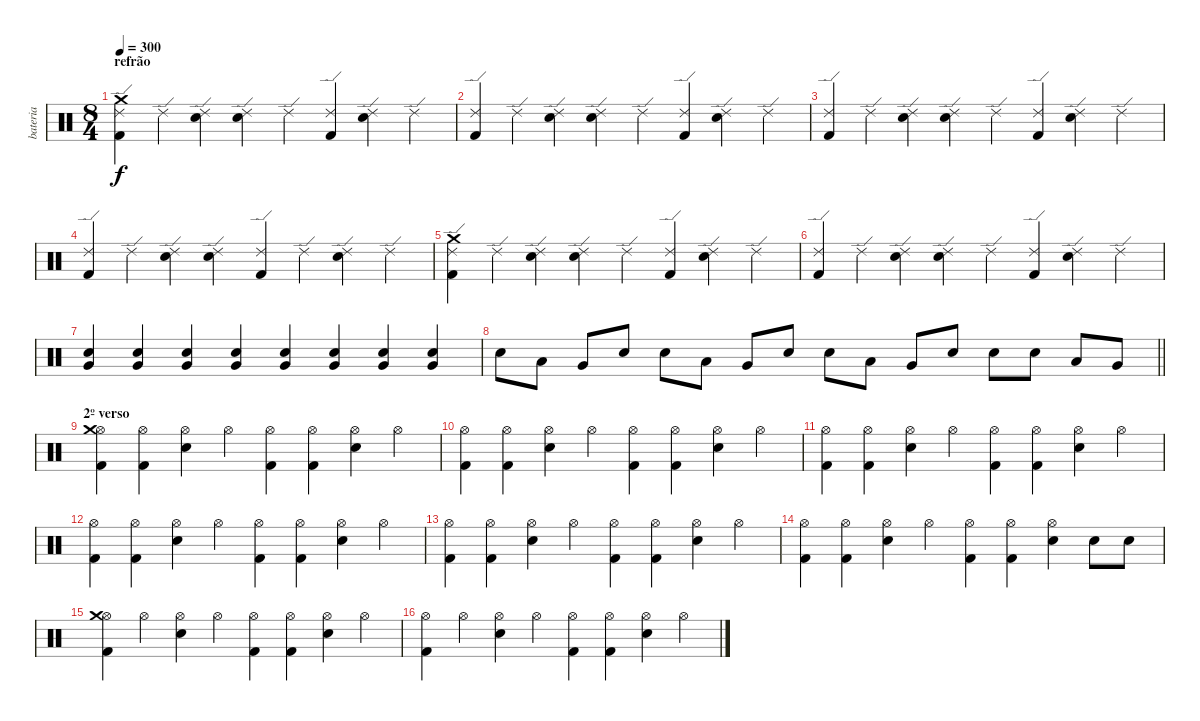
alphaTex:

\track ("bateria" "bateria") {instrument percussion}
\staff {score}
\articulation defaults
\ts (8 4)
\section ("" "refrão")
\tempo 300
\clef neutral
\ks c
("Ride (edge) 2" "Kick (hit) 2" "Crash medium (hit)").4{dy f} "Ride (edge) 2".4 ("Ride (edge) 2" "Electric Snare (hit)").4 ("Ride (edge) 2" "Electric Snare (hit)").4 "Ride (edge) 2".4 ("Ride (edge) 2" "Kick (hit) 2").4 ("Ride (edge) 2" "Electric Snare (hit)").4 "Ride (edge) 2".4 |
("Ride (edge) 2" "Kick (hit) 2").4 "Ride (edge) 2".4 ("Ride (edge) 2" "Electric Snare (hit)").4 ("Ride (edge) 2" "Electric Snare (hit)").4 "Ride (edge) 2".4 ("Ride (edge) 2" "Kick (hit) 2").4 ("Ride (edge) 2" "Electric Snare (hit)").4 "Ride (edge) 2".4 |
("Ride (edge) 2" "Kick (hit) 2").4 "Ride (edge) 2".4 ("Ride (edge) 2" "Electric Snare (hit)").4 ("Ride (edge) 2" "Electric Snare (hit)").4 "Ride (edge) 2".4 ("Ride (edge) 2" "Kick (hit) 2").4 ("Ride (edge) 2" "Electric Snare (hit)").4 "Ride (edge) 2".4 |
("Ride (edge) 2" "Kick (hit) 2").4 "Ride (edge) 2".4 ("Ride (edge) 2" "Electric Snare (hit)").4 ("Ride (edge) 2" "Electric Snare (hit)").4 ("Ride (edge) 2" "Kick (hit) 2").4 "Ride (edge) 2".4 ("Ride (edge) 2" "Electric Snare (hit)").4 "Ride (edge) 2".4 |
("Ride (edge) 2" "Kick (hit) 2" "Crash medium (hit)").4 "Ride (edge) 2".4 ("Ride (edge) 2" "Electric Snare (hit)").4 ("Ride (edge) 2" "Electric Snare (hit)").4 "Ride (edge) 2".4 ("Ride (edge) 2" "Kick (hit) 2").4 ("Ride (edge) 2" "Electric Snare (hit)").4 "Ride (edge) 2".4 |
("Ride (edge) 2" "Kick (hit) 2").4 "Ride (edge) 2".4 ("Ride (edge) 2" "Electric Snare (hit)").4 ("Ride (edge) 2" "Electric Snare (hit)").4 "Ride (edge) 2".4 ("Ride (edge) 2" "Kick (hit) 2").4 ("Ride (edge) 2" "Electric Snare (hit)").4 "Ride (edge) 2".4 |
("Electric Snare (hit)" "Very Low Tom (hit)").4 ("Electric Snare (hit)" "Very Low Tom (hit)").4 ("Electric Snare (hit)" "Very Low Tom (hit)").4 ("Electric Snare (hit)" "Very Low Tom (hit)").4 ("Electric Snare (hit)" "Very Low Tom (hit)").4 ("Electric Snare (hit)" "Very Low Tom (hit)").4 ("Electric Snare (hit)" "Very Low Tom (hit)").4 ("Electric Snare (hit)" "Very Low Tom (hit)").4 |
\barLineRight lightlight "Electric Snare (hit)".8 "Low Tom (hit)".8 "Very Low Tom (hit)".8 "Electric Snare (hit)".8 "Electric Snare (hit)".8 "Low Tom (hit)".8 "Very Low Tom (hit)".8 "Electric Snare (hit)".8 "Electric Snare (hit)".8 "Low Tom (hit)".8 "Very Low Tom (hit)".8 "Electric Snare (hit)".8 "Electric Snare (hit)".8 "Electric Snare (hit)".8 "Low Tom (hit)".8 "Very Low Tom (hit)".8
|
\section ("" "2º verso")
("Hi-Hat (open)" "Kick (hit) 2" "Crash medium (hit)").4 ("Hi-Hat (open)" "Kick (hit) 2").4 ("Hi-Hat (open)" "Electric Snare (hit)").4 "Hi-Hat (open)".4 ("Hi-Hat (open)" "Kick (hit) 2").4 ("Hi-Hat (open)" "Kick (hit) 2").4 ("Hi-Hat (open)" "Electric Snare (hit)").4 "Hi-Hat (open)".4 |
("Hi-Hat (open)" "Kick (hit) 2").4 ("Hi-Hat (open)" "Kick (hit) 2").4 ("Hi-Hat (open)" "Electric Snare (hit)").4 "Hi-Hat (open)".4 ("Hi-Hat (open)" "Kick (hit) 2").4 ("Hi-Hat (open)" "Kick (hit) 2").4 ("Hi-Hat (open)" "Electric Snare (hit)").4 "Hi-Hat (open)".4 |
("Hi-Hat (open)" "Kick (hit) 2").4 ("Hi-Hat (open)" "Kick (hit) 2").4 ("Hi-Hat (open)" "Electric Snare (hit)").4 "Hi-Hat (open)".4 ("Hi-Hat (open)" "Kick (hit) 2").4 ("Hi-Hat (open)" "Kick (hit) 2").4 ("Hi-Hat (open)" "Electric Snare (hit)").4 "Hi-Hat (open)".4 |
("Hi-Hat (open)" "Kick (hit) 2").4 ("Hi-Hat (open)" "Kick (hit) 2").4 ("Hi-Hat (open)" "Electric Snare (hit)").4 "Hi-Hat (open)".4 ("Hi-Hat (open)" "Kick (hit) 2").4 ("Hi-Hat (open)" "Kick (hit) 2").4 ("Hi-Hat (open)" "Electric Snare (hit)").4 "Hi-Hat (open)".4 |
("Hi-Hat (open)" "Kick (hit) 2").4 ("Hi-Hat (open)" "Kick (hit) 2").4 ("Hi-Hat (open)" "Electric Snare (hit)").4 "Hi-Hat (open)".4 ("Hi-Hat (open)" "Kick (hit) 2").4 ("Hi-Hat (open)" "Kick (hit) 2").4 ("Hi-Hat (open)" "Electric Snare (hit)").4 "Hi-Hat (open)".4 |
("Hi-Hat (open)" "Kick (hit) 2").4 ("Hi-Hat (open)" "Kick (hit) 2").4 ("Hi-Hat (open)" "Electric Snare (hit)").4 "Hi-Hat (open)".4 ("Hi-Hat (open)" "Kick (hit) 2").4 ("Hi-Hat (open)" "Kick (hit) 2").4 ("Hi-Hat (open)" "Electric Snare (hit)").4 "Electric Snare (hit)".8 "Electric Snare (hit)".8 |
("Hi-Hat (open)" "Kick (hit) 2" "Crash medium (hit)").4 "Hi-Hat (open)".4 ("Hi-Hat (open)" "Electric Snare (hit)").4 "Hi-Hat (open)".4 ("Hi-Hat (open)" "Kick (hit) 2").4 ("Hi-Hat (open)" "Kick (hit) 2").4 ("Hi-Hat (open)" "Electric Snare (hit)").4 "Hi-Hat (open)".4 |
("Hi-Hat (open)" "Kick (hit) 2").4 "Hi-Hat (open)".4 ("Hi-Hat (open)" "Electric Snare (hit)").4 "Hi-Hat (open)".4 ("Hi-Hat (open)" "Kick (hit) 2").4 ("Hi-Hat (open)" "Kick (hit) 2").4 ("Hi-Hat (open)" "Electric Snare (hit)").4 "Hi-Hat (open)".4
